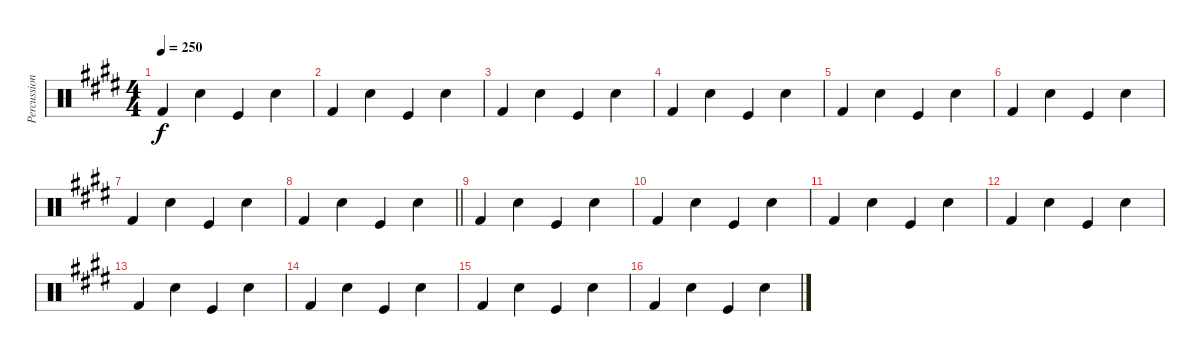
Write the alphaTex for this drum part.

\track ("Percussion" "Percussion") {instrument percussion}
\staff {score}
\articulation defaults
\ts (4 4)
\tempo 250
\clef neutral
\ks e "Kick (hit) 2".4{dy f} "Snare (hit) 2".4 "Kick (hit)".4 "Snare (hit) 2".4
|
"Kick (hit) 2".4 "Snare (hit) 2".4 "Kick (hit)".4 "Snare (hit) 2".4 |
"Kick (hit) 2".4 "Snare (hit) 2".4 "Kick (hit)".4 "Snare (hit) 2".4 |
"Kick (hit) 2".4 "Snare (hit) 2".4 "Kick (hit)".4 "Snare (hit) 2".4 |
"Kick (hit) 2".4 "Snare (hit) 2".4 "Kick (hit)".4 "Snare (hit) 2".4 |
"Kick (hit) 2".4 "Snare (hit) 2".4 "Kick (hit)".4 "Snare (hit) 2".4 |
"Kick (hit) 2".4 "Snare (hit) 2".4 "Kick (hit)".4 "Snare (hit) 2".4 |
\barLineRight lightlight "Kick (hit) 2".4 "Snare (hit) 2".4 "Kick (hit)".4 "Snare (hit) 2".4
|
"Kick (hit) 2".4 "Snare (hit) 2".4 "Kick (hit)".4 "Snare (hit) 2".4 |
"Kick (hit) 2".4 "Snare (hit) 2".4 "Kick (hit)".4 "Snare (hit) 2".4 |
"Kick (hit) 2".4 "Snare (hit) 2".4 "Kick (hit)".4 "Snare (hit) 2".4 |
"Kick (hit) 2".4 "Snare (hit) 2".4 "Kick (hit)".4 "Snare (hit) 2".4 |
"Kick (hit) 2".4 "Snare (hit) 2".4 "Kick (hit)".4 "Snare (hit) 2".4 |
"Kick (hit) 2".4 "Snare (hit) 2".4 "Kick (hit)".4 "Snare (hit) 2".4 |
"Kick (hit) 2".4 "Snare (hit) 2".4 "Kick (hit)".4 "Snare (hit) 2".4 |
"Kick (hit) 2".4 "Snare (hit) 2".4 "Kick (hit)".4 "Snare (hit) 2".4
